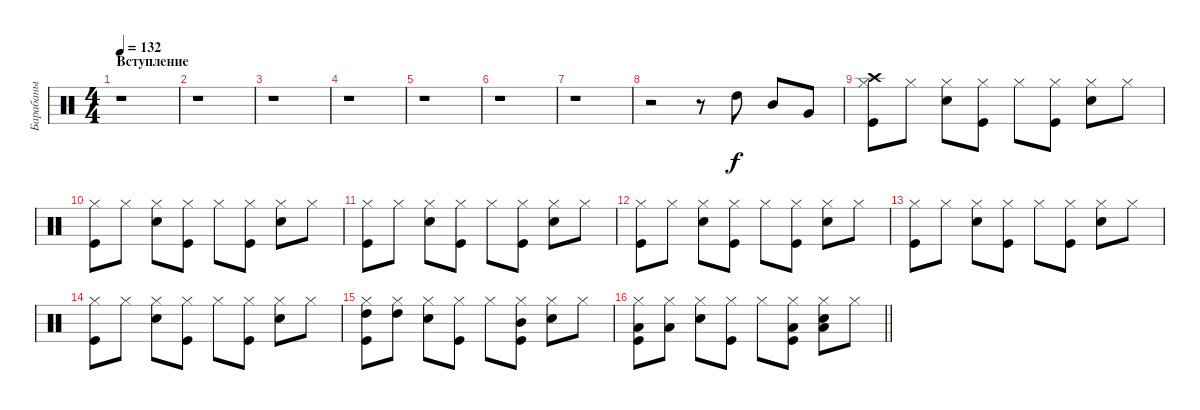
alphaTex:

\track ("Барабаны" "Барабаны") {instrument percussion}
\staff {score}
\articulation defaults
\ts (4 4)
\section ("" "Вступление")
\tempo 132
\clef neutral
\ks c
r.1{dy f} |
r.1 |
r.1 |
r.1 |
r.1 |
r.1 |
r.1 |
r.2 r.8 "High Tom (hit)".8 "Mid Tom (hit)".8 "Very Low Tom (hit)".8 |
("Kick (hit)" "Hi-Hat (closed)" "Crash high (hit)").8 "Hi-Hat (closed)".8 ("Snare (hit) 2" "Hi-Hat (closed)").8 ("Kick (hit)" "Hi-Hat (closed)").8 "Hi-Hat (closed)".8 ("Kick (hit)" "Hi-Hat (closed)").8 ("Snare (hit) 2" "Hi-Hat (closed)").8 "Hi-Hat (closed)".8 |
("Kick (hit)" "Hi-Hat (closed)").8 "Hi-Hat (closed)".8 ("Snare (hit) 2" "Hi-Hat (closed)").8 ("Kick (hit)" "Hi-Hat (closed)").8 "Hi-Hat (closed)".8 ("Kick (hit)" "Hi-Hat (closed)").8 ("Snare (hit) 2" "Hi-Hat (closed)").8 "Hi-Hat (closed)".8 |
("Kick (hit)" "Hi-Hat (closed)").8 "Hi-Hat (closed)".8 ("Snare (hit) 2" "Hi-Hat (closed)").8 ("Kick (hit)" "Hi-Hat (closed)").8 "Hi-Hat (closed)".8 ("Kick (hit)" "Hi-Hat (closed)").8 ("Snare (hit) 2" "Hi-Hat (closed)").8 "Hi-Hat (closed)".8 |
("Kick (hit)" "Hi-Hat (closed)").8 "Hi-Hat (closed)".8 ("Snare (hit) 2" "Hi-Hat (closed)").8 ("Kick (hit)" "Hi-Hat (closed)").8 "Hi-Hat (closed)".8 ("Kick (hit)" "Hi-Hat (closed)").8 ("Snare (hit) 2" "Hi-Hat (closed)").8 "Hi-Hat (closed)".8 |
("Kick (hit)" "Hi-Hat (closed)").8 "Hi-Hat (closed)".8 ("Snare (hit) 2" "Hi-Hat (closed)").8 ("Kick (hit)" "Hi-Hat (closed)").8 "Hi-Hat (closed)".8 ("Kick (hit)" "Hi-Hat (closed)").8 ("Snare (hit) 2" "Hi-Hat (closed)").8 "Hi-Hat (closed)".8 |
("Kick (hit)" "Hi-Hat (closed)").8 "Hi-Hat (closed)".8 ("Snare (hit) 2" "Hi-Hat (closed)").8 ("Kick (hit)" "Hi-Hat (closed)").8 "Hi-Hat (closed)".8 ("Kick (hit)" "Hi-Hat (closed)").8 ("Snare (hit) 2" "Hi-Hat (closed)").8 "Hi-Hat (closed)".8 |
("Kick (hit)" "Hi-Hat (closed)" "High Tom (hit)").8 ("Hi-Hat (closed)" "High Tom (hit)").8 ("Snare (hit) 2" "Hi-Hat (closed)").8 ("Kick (hit)" "Hi-Hat (closed)").8 "Hi-Hat (closed)".8 ("Kick (hit)" "Hi-Hat (closed)" "Mid Tom (hit)").8 ("Snare (hit) 2" "Hi-Hat (closed)").8 "Hi-Hat (closed)".8 |
\barLineRight lightlight
("Kick (hit)" "Hi-Hat (closed)" "Low Tom (hit)").8 ("Hi-Hat (closed)" "Low Tom (hit)").8 ("Snare (hit) 2" "Hi-Hat (closed)").8 ("Kick (hit)" "Hi-Hat (closed)").8 "Hi-Hat (closed)".8 ("Kick (hit)" "Hi-Hat (closed)" "Low Floor Tom (hit)").8 ("Snare (hit) 2" "Hi-Hat (closed)" "Low Floor Tom (hit)").8 "Hi-Hat (closed)".8
